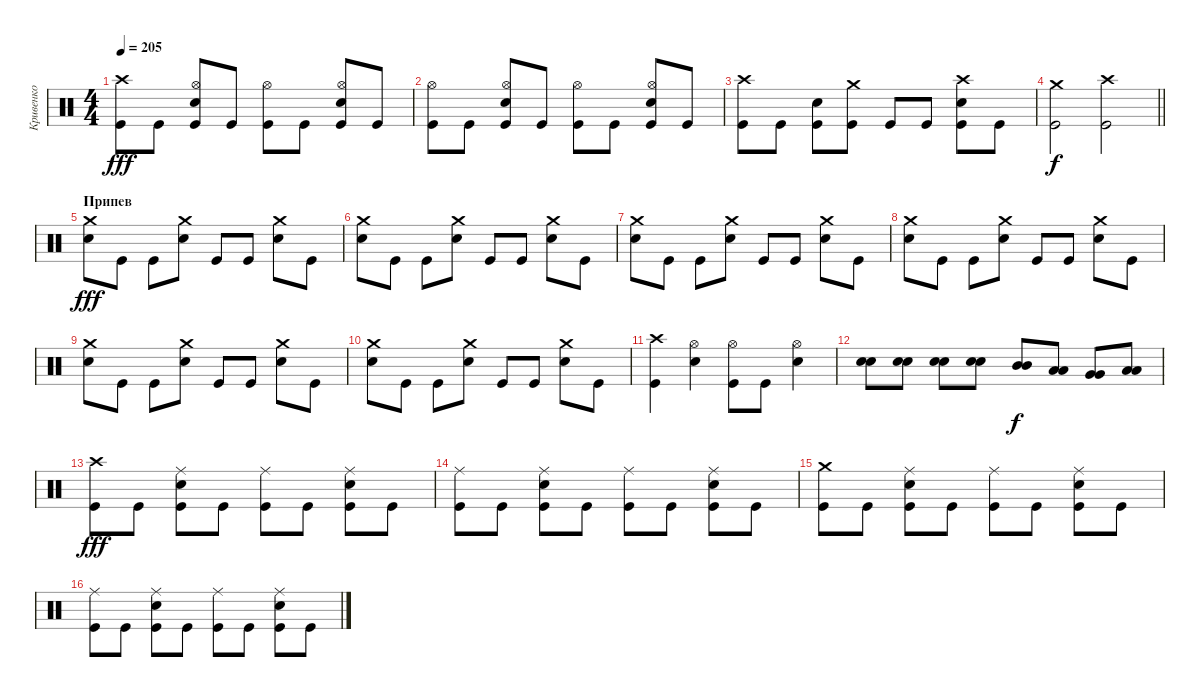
\track ("Кривенко" "Кривенко") {instrument percussion}
\staff {score}
\articulation defaults
\ts (4 4)
\tempo 205
\clef neutral
\ks c
("Crash high (hit)" "Kick (hit)").8{dy fff} "Kick (hit)".8 ("Hi-Hat (open)" "Electric Snare (hit)" "Kick (hit)").8 "Kick (hit)".8 ("Hi-Hat (open)" "Kick (hit)").8 "Kick (hit)".8 ("Hi-Hat (open)" "Electric Snare (hit)" "Kick (hit)").8 "Kick (hit)".8 |
("Hi-Hat (open)" "Kick (hit)").8 "Kick (hit)".8 ("Hi-Hat (open)" "Electric Snare (hit)" "Kick (hit)").8 "Kick (hit)".8 ("Hi-Hat (open)" "Kick (hit)").8 "Kick (hit)".8 ("Hi-Hat (open)" "Electric Snare (hit)" "Kick (hit)").8 "Kick (hit)".8 |
("Crash high (hit)" "Kick (hit)").8 "Kick (hit)".8 ("Electric Snare (hit)" "Kick (hit)").8 ("Crash medium (hit)" "Kick (hit)").8 "Kick (hit)".8 "Kick (hit)".8 ("Crash high (hit)" "Electric Snare (hit)" "Kick (hit)").8 "Kick (hit)".8 |
\barLineRight lightlight
("Crash medium (hit)" "Kick (hit)").2{dy f} ("Crash high (hit)" "Kick (hit)").2 |
\section ("" "Припев")
("Crash medium (hit)" "Electric Snare (hit)").8{dy fff} "Kick (hit)".8 "Kick (hit)".8 ("Crash medium (hit)" "Electric Snare (hit)").8 "Kick (hit)".8 "Kick (hit)".8 ("Crash medium (hit)" "Electric Snare (hit)").8 "Kick (hit)".8 |
("Crash medium (hit)" "Electric Snare (hit)").8 "Kick (hit)".8 "Kick (hit)".8 ("Crash medium (hit)" "Electric Snare (hit)").8 "Kick (hit)".8 "Kick (hit)".8 ("Crash medium (hit)" "Electric Snare (hit)").8 "Kick (hit)".8 |
("Crash medium (hit)" "Electric Snare (hit)").8 "Kick (hit)".8 "Kick (hit)".8 ("Crash medium (hit)" "Electric Snare (hit)").8 "Kick (hit)".8 "Kick (hit)".8 ("Crash medium (hit)" "Electric Snare (hit)").8 "Kick (hit)".8 |
("Crash medium (hit)" "Electric Snare (hit)").8 "Kick (hit)".8 "Kick (hit)".8 ("Crash medium (hit)" "Electric Snare (hit)").8 "Kick (hit)".8 "Kick (hit)".8 ("Crash medium (hit)" "Electric Snare (hit)").8 "Kick (hit)".8 |
("Crash medium (hit)" "Electric Snare (hit)").8 "Kick (hit)".8 "Kick (hit)".8 ("Crash medium (hit)" "Electric Snare (hit)").8 "Kick (hit)".8 "Kick (hit)".8 ("Crash medium (hit)" "Electric Snare (hit)").8 "Kick (hit)".8 |
("Crash medium (hit)" "Electric Snare (hit)").8 "Kick (hit)".8 "Kick (hit)".8 ("Crash medium (hit)" "Electric Snare (hit)").8 "Kick (hit)".8 "Kick (hit)".8 ("Crash medium (hit)" "Electric Snare (hit)").8 "Kick (hit)".8 |
("Crash high (hit)" "Kick (hit)").4 ("Hi-Hat (open)" "Electric Snare (hit)").4 ("Hi-Hat (open)" "Kick (hit)").8 "Kick (hit)".8 ("Hi-Hat (open)" "Electric Snare (hit)").4 |
("Electric Snare (hit)" "Electric Snare (hit)").8 ("Electric Snare (hit)" "Electric Snare (hit)").8 ("Electric Snare (hit)" "Electric Snare (hit)").8 ("Electric Snare (hit)" "Electric Snare (hit)").8 ("Mid Tom (hit)" "Mid Tom (hit)").8{dy f} ("Low Tom (hit)" "Low Tom (hit)").8 ("Very Low Tom (hit)" "Very Low Tom (hit)").8 ("Low Floor Tom (hit)" "Low Floor Tom (hit)").8 |
("Crash high (hit)" "Kick (hit)").8{dy fff} "Kick (hit)".8 ("Ride (middle)" "Electric Snare (hit)" "Kick (hit)").8 "Kick (hit)".8 ("Ride (middle)" "Kick (hit)").8 "Kick (hit)".8 ("Ride (middle)" "Electric Snare (hit)" "Kick (hit)").8 "Kick (hit)".8 |
("Ride (middle)" "Kick (hit)").8 "Kick (hit)".8 ("Ride (middle)" "Electric Snare (hit)" "Kick (hit)").8 "Kick (hit)".8 ("Ride (middle)" "Kick (hit)").8 "Kick (hit)".8 ("Ride (middle)" "Electric Snare (hit)" "Kick (hit)").8 "Kick (hit)".8 |
("Crash medium (hit)" "Kick (hit)").8 "Kick (hit)".8 ("Ride (middle)" "Electric Snare (hit)" "Kick (hit)").8 "Kick (hit)".8 ("Ride (middle)" "Kick (hit)").8 "Kick (hit)".8 ("Ride (middle)" "Electric Snare (hit)" "Kick (hit)").8 "Kick (hit)".8 |
("Ride (middle)" "Kick (hit)").8 "Kick (hit)".8 ("Ride (middle)" "Electric Snare (hit)" "Kick (hit)").8 "Kick (hit)".8 ("Ride (middle)" "Kick (hit)").8 "Kick (hit)".8 ("Ride (middle)" "Electric Snare (hit)" "Kick (hit)").8 "Kick (hit)".8
